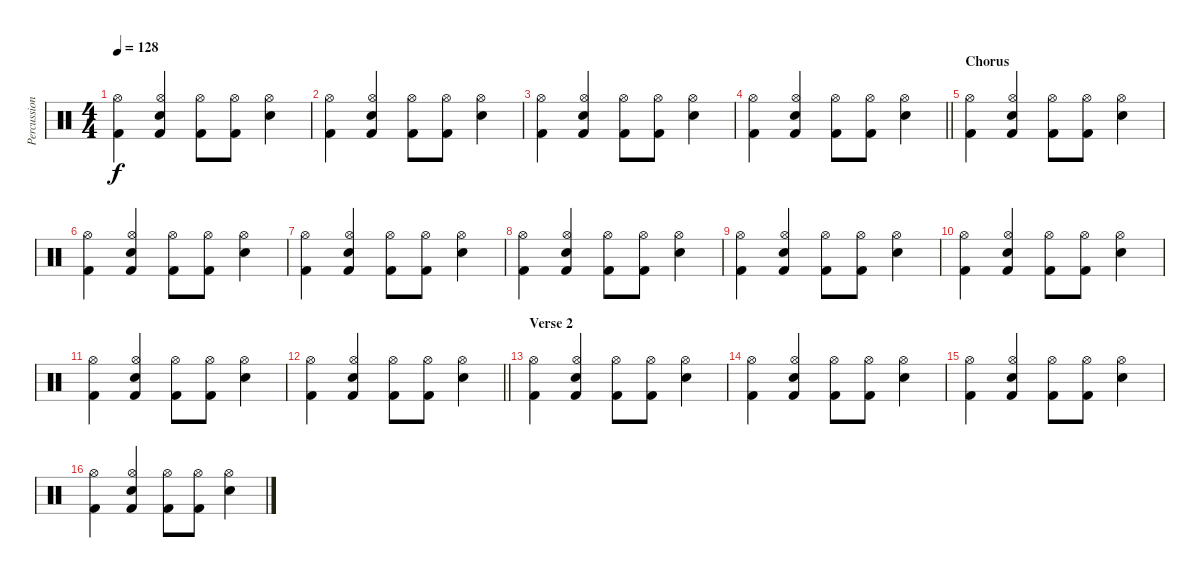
\track ("Percussion" "Percussion") {instrument percussion}
\staff {score}
\articulation defaults
\ts (4 4)
\tempo 128
\clef neutral
\ks c
("Kick (hit) 2" "Hi-Hat (open)").4{dy f} ("Kick (hit) 2" "Snare (hit) 2" "Hi-Hat (open)").4 ("Kick (hit) 2" "Hi-Hat (open)").8 ("Kick (hit) 2" "Hi-Hat (open)").8 ("Snare (hit) 2" "Hi-Hat (open)").4 |
("Kick (hit) 2" "Hi-Hat (open)").4 ("Kick (hit) 2" "Snare (hit) 2" "Hi-Hat (open)").4 ("Kick (hit) 2" "Hi-Hat (open)").8 ("Kick (hit) 2" "Hi-Hat (open)").8 ("Snare (hit) 2" "Hi-Hat (open)").4 |
("Kick (hit) 2" "Hi-Hat (open)").4 ("Kick (hit) 2" "Snare (hit) 2" "Hi-Hat (open)").4 ("Kick (hit) 2" "Hi-Hat (open)").8 ("Kick (hit) 2" "Hi-Hat (open)").8 ("Snare (hit) 2" "Hi-Hat (open)").4 |
\barLineRight lightlight
("Kick (hit) 2" "Hi-Hat (open)").4 ("Kick (hit) 2" "Snare (hit) 2" "Hi-Hat (open)").4 ("Kick (hit) 2" "Hi-Hat (open)").8 ("Kick (hit) 2" "Hi-Hat (open)").8 ("Snare (hit) 2" "Hi-Hat (open)").4 |
\section ("" "Chorus")
("Kick (hit) 2" "Hi-Hat (open)").4 ("Kick (hit) 2" "Snare (hit) 2" "Hi-Hat (open)").4 ("Kick (hit) 2" "Hi-Hat (open)").8 ("Kick (hit) 2" "Hi-Hat (open)").8 ("Snare (hit) 2" "Hi-Hat (open)").4 |
("Kick (hit) 2" "Hi-Hat (open)").4 ("Kick (hit) 2" "Snare (hit) 2" "Hi-Hat (open)").4 ("Kick (hit) 2" "Hi-Hat (open)").8 ("Kick (hit) 2" "Hi-Hat (open)").8 ("Snare (hit) 2" "Hi-Hat (open)").4 |
("Kick (hit) 2" "Hi-Hat (open)").4 ("Kick (hit) 2" "Snare (hit) 2" "Hi-Hat (open)").4 ("Kick (hit) 2" "Hi-Hat (open)").8 ("Kick (hit) 2" "Hi-Hat (open)").8 ("Snare (hit) 2" "Hi-Hat (open)").4 |
("Kick (hit) 2" "Hi-Hat (open)").4 ("Kick (hit) 2" "Snare (hit) 2" "Hi-Hat (open)").4 ("Kick (hit) 2" "Hi-Hat (open)").8 ("Kick (hit) 2" "Hi-Hat (open)").8 ("Snare (hit) 2" "Hi-Hat (open)").4 |
("Kick (hit) 2" "Hi-Hat (open)").4 ("Kick (hit) 2" "Snare (hit) 2" "Hi-Hat (open)").4 ("Kick (hit) 2" "Hi-Hat (open)").8 ("Kick (hit) 2" "Hi-Hat (open)").8 ("Snare (hit) 2" "Hi-Hat (open)").4 |
("Kick (hit) 2" "Hi-Hat (open)").4 ("Kick (hit) 2" "Snare (hit) 2" "Hi-Hat (open)").4 ("Kick (hit) 2" "Hi-Hat (open)").8 ("Kick (hit) 2" "Hi-Hat (open)").8 ("Snare (hit) 2" "Hi-Hat (open)").4 |
("Kick (hit) 2" "Hi-Hat (open)").4 ("Kick (hit) 2" "Snare (hit) 2" "Hi-Hat (open)").4 ("Kick (hit) 2" "Hi-Hat (open)").8 ("Kick (hit) 2" "Hi-Hat (open)").8 ("Snare (hit) 2" "Hi-Hat (open)").4 |
\barLineRight lightlight
("Kick (hit) 2" "Hi-Hat (open)").4 ("Kick (hit) 2" "Snare (hit) 2" "Hi-Hat (open)").4 ("Kick (hit) 2" "Hi-Hat (open)").8 ("Kick (hit) 2" "Hi-Hat (open)").8 ("Snare (hit) 2" "Hi-Hat (open)").4 |
\section ("" "Verse 2")
("Kick (hit) 2" "Hi-Hat (open)").4 ("Kick (hit) 2" "Snare (hit) 2" "Hi-Hat (open)").4 ("Kick (hit) 2" "Hi-Hat (open)").8 ("Kick (hit) 2" "Hi-Hat (open)").8 ("Snare (hit) 2" "Hi-Hat (open)").4 |
("Kick (hit) 2" "Hi-Hat (open)").4 ("Kick (hit) 2" "Snare (hit) 2" "Hi-Hat (open)").4 ("Kick (hit) 2" "Hi-Hat (open)").8 ("Kick (hit) 2" "Hi-Hat (open)").8 ("Snare (hit) 2" "Hi-Hat (open)").4 |
("Kick (hit) 2" "Hi-Hat (open)").4 ("Kick (hit) 2" "Snare (hit) 2" "Hi-Hat (open)").4 ("Kick (hit) 2" "Hi-Hat (open)").8 ("Kick (hit) 2" "Hi-Hat (open)").8 ("Snare (hit) 2" "Hi-Hat (open)").4 |
("Kick (hit) 2" "Hi-Hat (open)").4 ("Kick (hit) 2" "Snare (hit) 2" "Hi-Hat (open)").4 ("Kick (hit) 2" "Hi-Hat (open)").8 ("Kick (hit) 2" "Hi-Hat (open)").8 ("Snare (hit) 2" "Hi-Hat (open)").4
